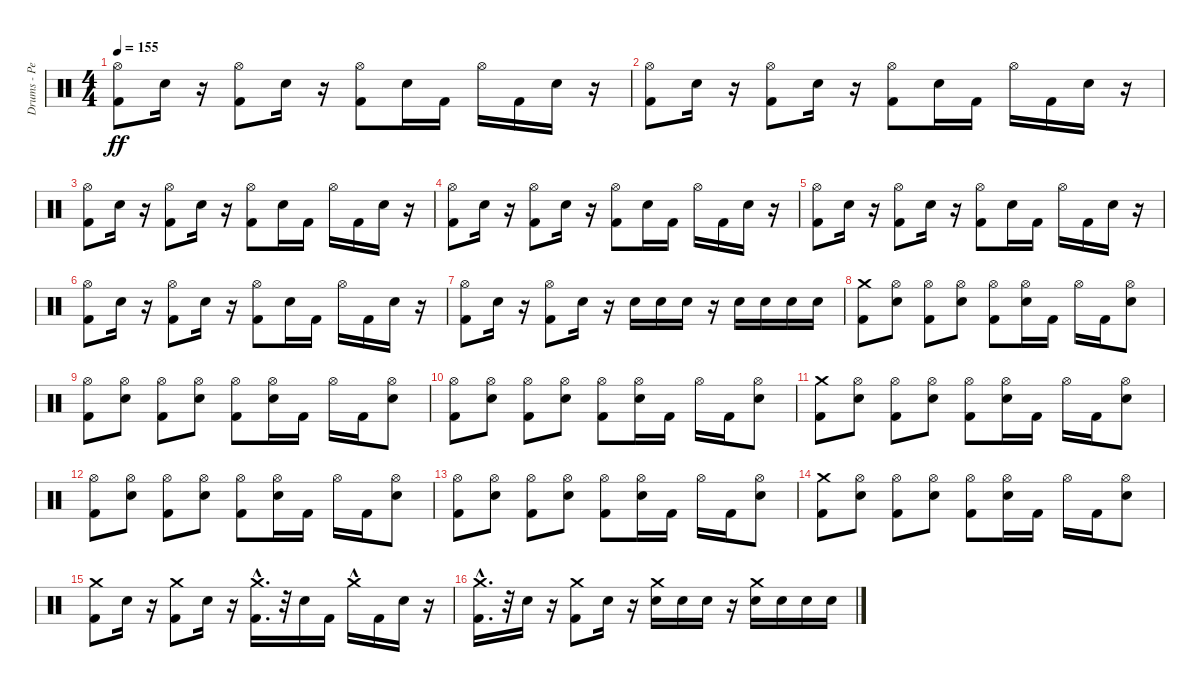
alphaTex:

\track ("Drums - Pete Finestone" "Drums - Pe") {instrument percussion}
\staff {score}
\articulation defaults
\ts (4 4)
\tempo 155
\clef neutral
\ks c
("Hi-Hat (open)" "Kick (hit) 2").8{dy ff} "Electric Snare (hit)".16 r.16 ("Hi-Hat (open)" "Kick (hit) 2").8 "Electric Snare (hit)".16 r.16 ("Hi-Hat (open)" "Kick (hit) 2").8 "Electric Snare (hit)".16 "Kick (hit) 2".16 "Hi-Hat (open)".16 "Kick (hit) 2".16 "Electric Snare (hit)".16 r.16 |
("Hi-Hat (open)" "Kick (hit) 2").8 "Electric Snare (hit)".16 r.16 ("Hi-Hat (open)" "Kick (hit) 2").8 "Electric Snare (hit)".16 r.16 ("Hi-Hat (open)" "Kick (hit) 2").8 "Electric Snare (hit)".16 "Kick (hit) 2".16 "Hi-Hat (open)".16 "Kick (hit) 2".16 "Electric Snare (hit)".16 r.16 |
("Hi-Hat (open)" "Kick (hit) 2").8 "Electric Snare (hit)".16 r.16 ("Hi-Hat (open)" "Kick (hit) 2").8 "Electric Snare (hit)".16 r.16 ("Hi-Hat (open)" "Kick (hit) 2").8 "Electric Snare (hit)".16 "Kick (hit) 2".16 "Hi-Hat (open)".16 "Kick (hit) 2".16 "Electric Snare (hit)".16 r.16 |
("Hi-Hat (open)" "Kick (hit) 2").8 "Electric Snare (hit)".16 r.16 ("Hi-Hat (open)" "Kick (hit) 2").8 "Electric Snare (hit)".16 r.16 ("Hi-Hat (open)" "Kick (hit) 2").8 "Electric Snare (hit)".16 "Kick (hit) 2".16 "Hi-Hat (open)".16 "Kick (hit) 2".16 "Electric Snare (hit)".16 r.16 |
("Hi-Hat (open)" "Kick (hit) 2").8 "Electric Snare (hit)".16 r.16 ("Hi-Hat (open)" "Kick (hit) 2").8 "Electric Snare (hit)".16 r.16 ("Hi-Hat (open)" "Kick (hit) 2").8 "Electric Snare (hit)".16 "Kick (hit) 2".16 "Hi-Hat (open)".16 "Kick (hit) 2".16 "Electric Snare (hit)".16 r.16 |
("Hi-Hat (open)" "Kick (hit) 2").8 "Electric Snare (hit)".16 r.16 ("Hi-Hat (open)" "Kick (hit) 2").8 "Electric Snare (hit)".16 r.16 ("Hi-Hat (open)" "Kick (hit) 2").8 "Electric Snare (hit)".16 "Kick (hit) 2".16 "Hi-Hat (open)".16 "Kick (hit) 2".16 "Electric Snare (hit)".16 r.16 |
("Hi-Hat (open)" "Kick (hit) 2").8 "Electric Snare (hit)".16 r.16 ("Hi-Hat (open)" "Kick (hit) 2").8 "Electric Snare (hit)".16 r.16 "Electric Snare (hit)".16 "Electric Snare (hit)".16 "Electric Snare (hit)".16 r.16 "Electric Snare (hit)".16 "Electric Snare (hit)".16 "Electric Snare (hit)".16 "Electric Snare (hit)".16 |
("Crash medium (hit)" "Kick (hit) 2").8 ("Electric Snare (hit)" "Hi-Hat (open)").8 ("Hi-Hat (open)" "Kick (hit) 2").8 ("Electric Snare (hit)" "Hi-Hat (open)").8 ("Hi-Hat (open)" "Kick (hit) 2").8 ("Electric Snare (hit)" "Hi-Hat (open)").16 "Kick (hit) 2".16 "Hi-Hat (open)".16 "Kick (hit) 2".16 ("Electric Snare (hit)" "Hi-Hat (open)").8 |
("Hi-Hat (open)" "Kick (hit) 2").8 ("Electric Snare (hit)" "Hi-Hat (open)").8 ("Kick (hit) 2" "Hi-Hat (open)").8 ("Electric Snare (hit)" "Hi-Hat (open)").8 ("Kick (hit) 2" "Hi-Hat (open)").8 ("Electric Snare (hit)" "Hi-Hat (open)").16 "Kick (hit) 2".16 "Hi-Hat (open)".16 "Kick (hit) 2".16 ("Electric Snare (hit)" "Hi-Hat (open)").8 |
("Hi-Hat (open)" "Kick (hit) 2").8 ("Hi-Hat (open)" "Electric Snare (hit)").8 ("Hi-Hat (open)" "Kick (hit) 2").8 ("Hi-Hat (open)" "Electric Snare (hit)").8 ("Hi-Hat (open)" "Kick (hit) 2").8 ("Hi-Hat (open)" "Electric Snare (hit)").16 "Kick (hit) 2".16 "Hi-Hat (open)".16 "Kick (hit) 2".16 ("Hi-Hat (open)" "Electric Snare (hit)").8 |
("Crash medium (hit)" "Kick (hit) 2").8 ("Electric Snare (hit)" "Hi-Hat (open)").8 ("Kick (hit) 2" "Hi-Hat (open)").8 ("Electric Snare (hit)" "Hi-Hat (open)").8 ("Kick (hit) 2" "Hi-Hat (open)").8 ("Electric Snare (hit)" "Hi-Hat (open)").16 "Kick (hit) 2".16 "Hi-Hat (open)".16 "Kick (hit) 2".16 ("Electric Snare (hit)" "Hi-Hat (open)").8 |
("Kick (hit) 2" "Hi-Hat (open)").8 ("Electric Snare (hit)" "Hi-Hat (open)").8 ("Hi-Hat (open)" "Kick (hit) 2").8 ("Electric Snare (hit)" "Hi-Hat (open)").8 ("Hi-Hat (open)" "Kick (hit) 2").8 ("Electric Snare (hit)" "Hi-Hat (open)").16 "Kick (hit) 2".16 "Hi-Hat (open)".16 "Kick (hit) 2".16 ("Electric Snare (hit)" "Hi-Hat (open)").8 |
("Hi-Hat (open)" "Kick (hit) 2").8 ("Electric Snare (hit)" "Hi-Hat (open)").8 ("Kick (hit) 2" "Hi-Hat (open)").8 ("Electric Snare (hit)" "Hi-Hat (open)").8 ("Kick (hit) 2" "Hi-Hat (open)").8 ("Electric Snare (hit)" "Hi-Hat (open)").16 "Kick (hit) 2".16 "Hi-Hat (open)".16 "Kick (hit) 2".16 ("Electric Snare (hit)" "Hi-Hat (open)").8 |
("Kick (hit) 2" "Crash medium (hit)").8 ("Hi-Hat (open)" "Electric Snare (hit)").8 ("Hi-Hat (open)" "Kick (hit) 2").8 ("Hi-Hat (open)" "Electric Snare (hit)").8 ("Hi-Hat (open)" "Kick (hit) 2").8 ("Hi-Hat (open)" "Electric Snare (hit)").16 "Kick (hit) 2".16 "Hi-Hat (open)".16 "Kick (hit) 2".16 ("Electric Snare (hit)" "Hi-Hat (open)").8 |
("Kick (hit) 2" "Crash medium (hit)").8 "Electric Snare (hit)".16 r.16 ("Kick (hit) 2" "Crash medium (hit)").8 "Electric Snare (hit)".16 r.16 ("Kick (hit) 2" "Crash medium (hit)"{hac}).16{d} r.32 "Electric Snare (hit)".16 "Kick (hit) 2".16 "Crash medium (hit)"{hac}.16 "Kick (hit) 2".16 "Electric Snare (hit)".16 r.16 |
("Crash medium (hit)"{hac} "Kick (hit) 2").16{d} r.32 "Electric Snare (hit)".16 r.16 ("Crash medium (hit)" "Kick (hit) 2").8 "Electric Snare (hit)".16 r.16 ("Electric Snare (hit)" "Crash medium (hit)").16 "Electric Snare (hit)".16 "Electric Snare (hit)".16 r.16 ("Electric Snare (hit)" "Crash medium (hit)").16 "Electric Snare (hit)".16 "Electric Snare (hit)".16 "Electric Snare (hit)".16
